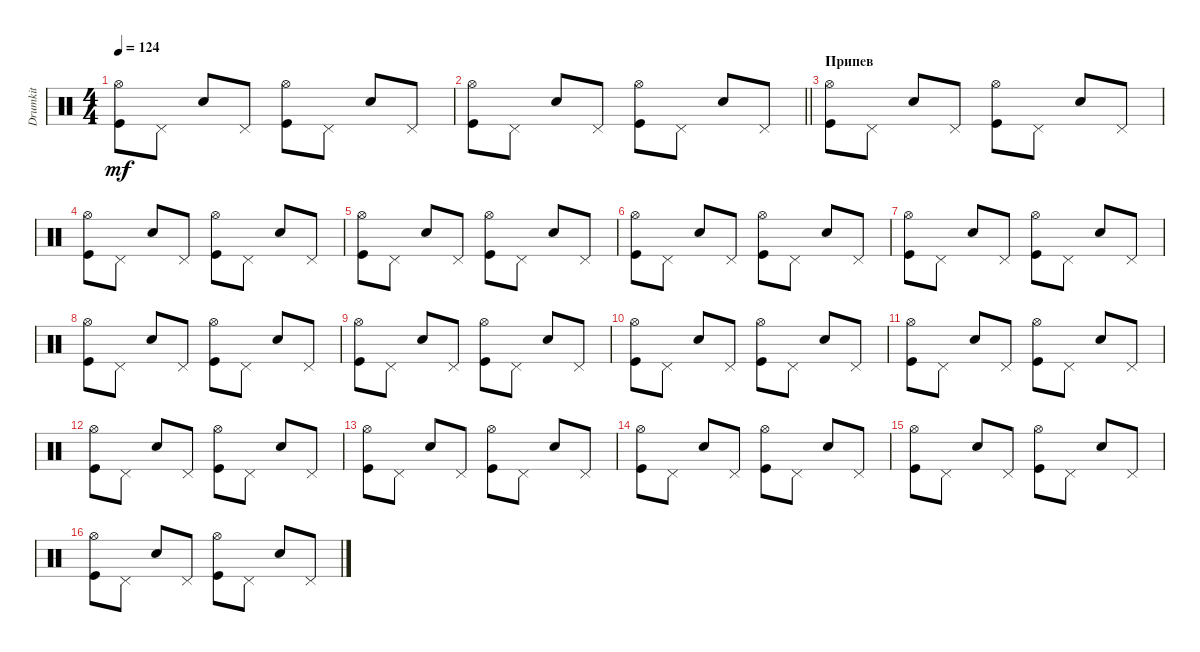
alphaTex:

\track ("Drumkit" "Drumkit") {instrument percussion}
\staff {score}
\articulation defaults
\ts (4 4)
\tempo 124
\clef neutral
\ks c
("Kick (hit)" "Hi-Hat (open)").8{dy mf} "Pedal Hi-Hat (hit)".8 "Snare (hit) 2".8 "Pedal Hi-Hat (hit)".8 ("Kick (hit)" "Hi-Hat (open)").8 "Pedal Hi-Hat (hit)".8 "Snare (hit) 2".8 "Pedal Hi-Hat (hit)".8 |
\barLineRight lightlight
("Kick (hit)" "Hi-Hat (open)").8 "Pedal Hi-Hat (hit)".8 "Snare (hit) 2".8 "Pedal Hi-Hat (hit)".8 ("Kick (hit)" "Hi-Hat (open)").8 "Pedal Hi-Hat (hit)".8 "Snare (hit) 2".8 "Pedal Hi-Hat (hit)".8 |
\section ("" "Припев")
("Kick (hit)" "Hi-Hat (open)").8 "Pedal Hi-Hat (hit)".8 "Snare (hit) 2".8 "Pedal Hi-Hat (hit)".8 ("Kick (hit)" "Hi-Hat (open)").8 "Pedal Hi-Hat (hit)".8 "Snare (hit) 2".8 "Pedal Hi-Hat (hit)".8 |
("Kick (hit)" "Hi-Hat (open)").8 "Pedal Hi-Hat (hit)".8 "Snare (hit) 2".8 "Pedal Hi-Hat (hit)".8 ("Kick (hit)" "Hi-Hat (open)").8 "Pedal Hi-Hat (hit)".8 "Snare (hit) 2".8 "Pedal Hi-Hat (hit)".8 |
("Kick (hit)" "Hi-Hat (open)").8 "Pedal Hi-Hat (hit)".8 "Snare (hit) 2".8 "Pedal Hi-Hat (hit)".8 ("Kick (hit)" "Hi-Hat (open)").8 "Pedal Hi-Hat (hit)".8 "Snare (hit) 2".8 "Pedal Hi-Hat (hit)".8 |
("Kick (hit)" "Hi-Hat (open)").8 "Pedal Hi-Hat (hit)".8 "Snare (hit) 2".8 "Pedal Hi-Hat (hit)".8 ("Kick (hit)" "Hi-Hat (open)").8 "Pedal Hi-Hat (hit)".8 "Snare (hit) 2".8 "Pedal Hi-Hat (hit)".8 |
("Kick (hit)" "Hi-Hat (open)").8 "Pedal Hi-Hat (hit)".8 "Snare (hit) 2".8 "Pedal Hi-Hat (hit)".8 ("Kick (hit)" "Hi-Hat (open)").8 "Pedal Hi-Hat (hit)".8 "Snare (hit) 2".8 "Pedal Hi-Hat (hit)".8 |
("Kick (hit)" "Hi-Hat (open)").8 "Pedal Hi-Hat (hit)".8 "Snare (hit) 2".8 "Pedal Hi-Hat (hit)".8 ("Kick (hit)" "Hi-Hat (open)").8 "Pedal Hi-Hat (hit)".8 "Snare (hit) 2".8 "Pedal Hi-Hat (hit)".8 |
("Kick (hit)" "Hi-Hat (open)").8 "Pedal Hi-Hat (hit)".8 "Snare (hit) 2".8 "Pedal Hi-Hat (hit)".8 ("Kick (hit)" "Hi-Hat (open)").8 "Pedal Hi-Hat (hit)".8 "Snare (hit) 2".8 "Pedal Hi-Hat (hit)".8 |
("Kick (hit)" "Hi-Hat (open)").8 "Pedal Hi-Hat (hit)".8 "Snare (hit) 2".8 "Pedal Hi-Hat (hit)".8 ("Kick (hit)" "Hi-Hat (open)").8 "Pedal Hi-Hat (hit)".8 "Snare (hit) 2".8 "Pedal Hi-Hat (hit)".8 |
("Kick (hit)" "Hi-Hat (open)").8 "Pedal Hi-Hat (hit)".8 "Snare (hit) 2".8 "Pedal Hi-Hat (hit)".8 ("Kick (hit)" "Hi-Hat (open)").8 "Pedal Hi-Hat (hit)".8 "Snare (hit) 2".8 "Pedal Hi-Hat (hit)".8 |
("Kick (hit)" "Hi-Hat (open)").8 "Pedal Hi-Hat (hit)".8 "Snare (hit) 2".8 "Pedal Hi-Hat (hit)".8 ("Kick (hit)" "Hi-Hat (open)").8 "Pedal Hi-Hat (hit)".8 "Snare (hit) 2".8 "Pedal Hi-Hat (hit)".8 |
("Kick (hit)" "Hi-Hat (open)").8 "Pedal Hi-Hat (hit)".8 "Snare (hit) 2".8 "Pedal Hi-Hat (hit)".8 ("Kick (hit)" "Hi-Hat (open)").8 "Pedal Hi-Hat (hit)".8 "Snare (hit) 2".8 "Pedal Hi-Hat (hit)".8 |
("Kick (hit)" "Hi-Hat (open)").8 "Pedal Hi-Hat (hit)".8 "Snare (hit) 2".8 "Pedal Hi-Hat (hit)".8 ("Kick (hit)" "Hi-Hat (open)").8 "Pedal Hi-Hat (hit)".8 "Snare (hit) 2".8 "Pedal Hi-Hat (hit)".8 |
("Kick (hit)" "Hi-Hat (open)").8 "Pedal Hi-Hat (hit)".8 "Snare (hit) 2".8 "Pedal Hi-Hat (hit)".8 ("Kick (hit)" "Hi-Hat (open)").8 "Pedal Hi-Hat (hit)".8 "Snare (hit) 2".8 "Pedal Hi-Hat (hit)".8 |
("Kick (hit)" "Hi-Hat (open)").8 "Pedal Hi-Hat (hit)".8 "Snare (hit) 2".8 "Pedal Hi-Hat (hit)".8 ("Kick (hit)" "Hi-Hat (open)").8 "Pedal Hi-Hat (hit)".8 "Snare (hit) 2".8 "Pedal Hi-Hat (hit)".8
